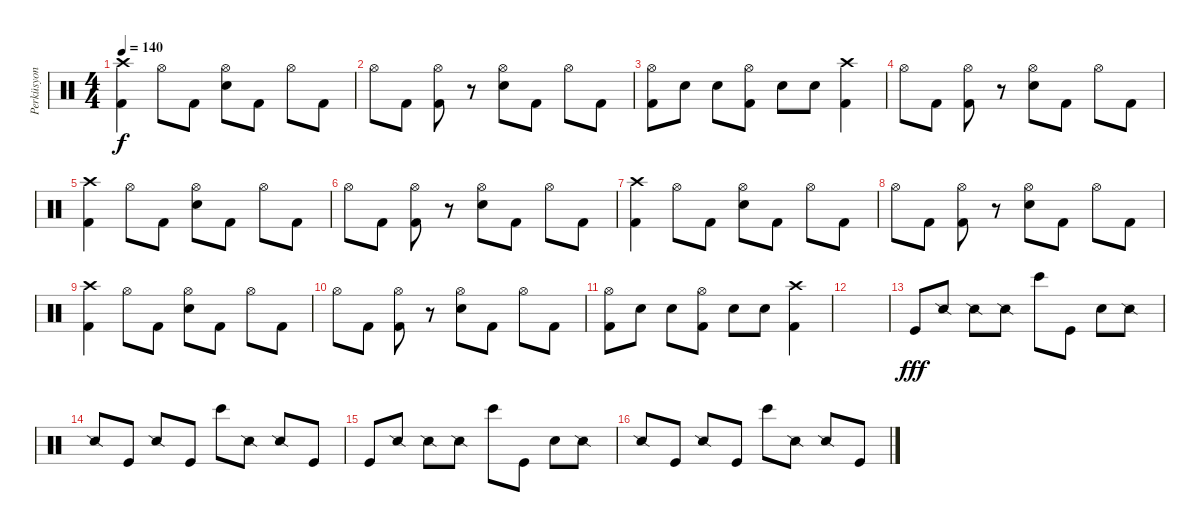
\track ("Perküsyon" "Perküsyon") {instrument percussion}
\staff {score}
\articulation defaults
\ts (4 4)
\tempo 140
\clef neutral
\ks c
("Crash high (hit)" "Kick (hit) 2").4{dy f} "Hi-Hat (open)".8 "Kick (hit) 2".8 ("Hi-Hat (open)" "Electric Snare (hit)").8 "Kick (hit) 2".8 "Hi-Hat (open)".8 "Kick (hit) 2".8 |
"Hi-Hat (open)".8 "Kick (hit) 2".8 ("Hi-Hat (open)" "Kick (hit) 2").8 r.8 ("Hi-Hat (open)" "Electric Snare (hit)").8 "Kick (hit) 2".8 "Hi-Hat (open)".8 "Kick (hit) 2".8 |
("Hi-Hat (open)" "Kick (hit) 2").8 "Electric Snare (hit)".8 "Electric Snare (hit)".8 ("Hi-Hat (open)" "Kick (hit) 2").8 "Electric Snare (hit)".8 "Electric Snare (hit)".8 ("Crash high (hit)" "Kick (hit) 2").4 |
"Hi-Hat (open)".8 "Kick (hit) 2".8 ("Hi-Hat (open)" "Kick (hit) 2").8 r.8 ("Hi-Hat (open)" "Electric Snare (hit)").8 "Kick (hit) 2".8 "Hi-Hat (open)".8 "Kick (hit) 2".8 |
("Crash high (hit)" "Kick (hit) 2").4 "Hi-Hat (open)".8 "Kick (hit) 2".8 ("Hi-Hat (open)" "Electric Snare (hit)").8 "Kick (hit) 2".8 "Hi-Hat (open)".8 "Kick (hit) 2".8 |
"Hi-Hat (open)".8 "Kick (hit) 2".8 ("Hi-Hat (open)" "Kick (hit) 2").8 r.8 ("Hi-Hat (open)" "Electric Snare (hit)").8 "Kick (hit) 2".8 "Hi-Hat (open)".8 "Kick (hit) 2".8 |
("Crash high (hit)" "Kick (hit) 2").4 "Hi-Hat (open)".8 "Kick (hit) 2".8 ("Hi-Hat (open)" "Electric Snare (hit)").8 "Kick (hit) 2".8 "Hi-Hat (open)".8 "Kick (hit) 2".8 |
"Hi-Hat (open)".8 "Kick (hit) 2".8 ("Hi-Hat (open)" "Kick (hit) 2").8 r.8 ("Hi-Hat (open)" "Electric Snare (hit)").8 "Kick (hit) 2".8 "Hi-Hat (open)".8 "Kick (hit) 2".8 |
("Crash high (hit)" "Kick (hit) 2").4 "Hi-Hat (open)".8 "Kick (hit) 2".8 ("Hi-Hat (open)" "Electric Snare (hit)").8 "Kick (hit) 2".8 "Hi-Hat (open)".8 "Kick (hit) 2".8 |
"Hi-Hat (open)".8 "Kick (hit) 2".8 ("Hi-Hat (open)" "Kick (hit) 2").8 r.8 ("Hi-Hat (open)" "Electric Snare (hit)").8 "Kick (hit) 2".8 "Hi-Hat (open)".8 "Kick (hit) 2".8 |
("Hi-Hat (open)" "Kick (hit) 2").8 "Electric Snare (hit)".8 "Electric Snare (hit)".8 ("Hi-Hat (open)" "Kick (hit) 2").8 "Electric Snare (hit)".8 "Electric Snare (hit)".8 ("Crash high (hit)" "Kick (hit) 2").4 |
|
"Kick (hit)".8{dy fff} "Snare (side stick) 2".8 "Snare (side stick) 2".8 "Snare (side stick) 2".8 "Bongo High (hit)".8 "Kick (hit)".8 "Metronome (bell)".8 "Snare (side stick) 2".8 |
"Snare (side stick) 2".8 "Kick (hit)".8 "Snare (side stick) 2".8 "Kick (hit)".8 "Bongo High (hit)".8 "Snare (side stick) 2".8 "Snare (side stick) 2".8 "Kick (hit)".8 |
"Kick (hit)".8 "Snare (side stick) 2".8 "Snare (side stick) 2".8 "Snare (side stick) 2".8 "Bongo High (hit)".8 "Kick (hit)".8 "Metronome (bell)".8 "Snare (side stick) 2".8 |
"Snare (side stick) 2".8 "Kick (hit)".8 "Snare (side stick) 2".8 "Kick (hit)".8 "Bongo High (hit)".8 "Snare (side stick) 2".8 "Snare (side stick) 2".8 "Kick (hit)".8
